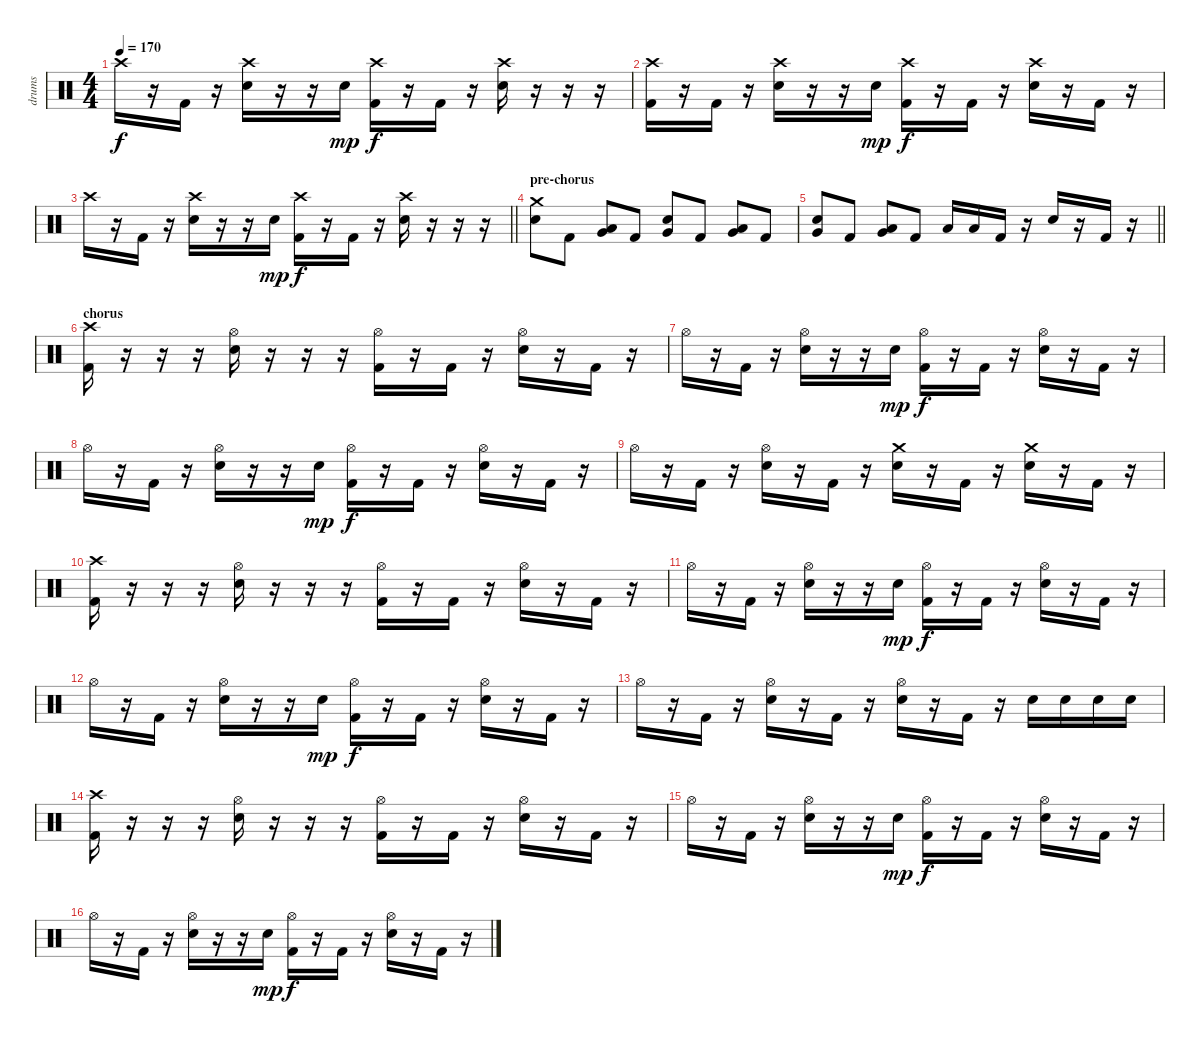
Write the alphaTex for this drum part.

\track ("drums" "drums") {instrument percussion}
\staff {score}
\articulation defaults
\ts (4 4)
\tempo 170
\clef neutral
\ks c "Crash high (hit)".16{dy f}
r.16 "Kick (hit) 2".16 r.16 ("Crash high (hit)" "Snare (hit) 2").16 r.16 r.16 "Snare (hit) 2".16{dy mp} ("Crash high (hit)" "Kick (hit) 2").16{dy f} r.16 "Kick (hit) 2".16 r.16 ("Crash high (hit)" "Snare (hit) 2").16 r.16 r.16 r.16 |
("Crash high (hit)" "Kick (hit) 2").16 r.16 "Kick (hit) 2".16 r.16 ("Crash high (hit)" "Snare (hit) 2").16 r.16 r.16 "Snare (hit) 2".16{dy mp} ("Crash high (hit)" "Kick (hit) 2").16{dy f} r.16 "Kick (hit) 2".16 r.16 ("Crash high (hit)" "Snare (hit) 2").16 r.16 "Kick (hit) 2".16 r.16 |
\barLineRight lightlight "Crash high (hit)".16
r.16 "Kick (hit) 2".16 r.16 ("Crash high (hit)" "Snare (hit) 2").16 r.16 r.16 "Snare (hit) 2".16{dy mp} ("Crash high (hit)" "Kick (hit) 2").16{dy f} r.16 "Kick (hit) 2".16 r.16 ("Crash high (hit)" "Snare (hit) 2").16 r.16 r.16 r.16 |
\section ("" "pre-chorus")
("Crash medium (hit)" "Snare (hit) 2").8 "Kick (hit) 2".8 ("Low Tom (hit)" "Very Low Tom (hit)").8 "Kick (hit) 2".8 ("Snare (hit) 2" "Very Low Tom (hit)").8 "Kick (hit) 2".8 ("Low Tom (hit)" "Very Low Tom (hit)").8 "Kick (hit) 2".8 |
\barLineRight lightlight
("Snare (hit) 2" "Very Low Tom (hit)").8 "Kick (hit) 2".8 ("Low Tom (hit)" "Very Low Tom (hit)").8 "Kick (hit) 2".8 "Low Tom (hit)".16 "Low Tom (hit)".16 "Kick (hit) 2".16 r.16 "Snare (hit) 2".16 r.16 "Kick (hit) 2".16 r.16 |
\section ("" "chorus")
("Crash high (hit)" "Kick (hit) 2").16 r.16 r.16 r.16 ("Hi-Hat (open)" "Snare (hit) 2").16 r.16 r.16 r.16 ("Hi-Hat (open)" "Kick (hit) 2").16 r.16 "Kick (hit) 2".16 r.16 ("Hi-Hat (open)" "Snare (hit) 2").16 r.16 "Kick (hit) 2".16 r.16 |
"Hi-Hat (open)".16 r.16 "Kick (hit) 2".16 r.16 ("Hi-Hat (open)" "Snare (hit) 2").16 r.16 r.16 "Snare (hit) 2".16{dy mp} ("Hi-Hat (open)" "Kick (hit) 2").16{dy f} r.16 "Kick (hit) 2".16 r.16 ("Hi-Hat (open)" "Snare (hit) 2").16 r.16 "Kick (hit) 2".16 r.16 |
"Hi-Hat (open)".16 r.16 "Kick (hit) 2".16 r.16 ("Hi-Hat (open)" "Snare (hit) 2").16 r.16 r.16 "Snare (hit) 2".16{dy mp} ("Hi-Hat (open)" "Kick (hit) 2").16{dy f} r.16 "Kick (hit) 2".16 r.16 ("Hi-Hat (open)" "Snare (hit) 2").16 r.16 "Kick (hit) 2".16 r.16 |
"Hi-Hat (open)".16 r.16 "Kick (hit) 2".16 r.16 ("Hi-Hat (open)" "Snare (hit) 2").16 r.16 "Kick (hit) 2".16 r.16 ("Crash medium (hit)" "Snare (hit) 2").16 r.16 "Kick (hit) 2".16 r.16 ("Crash medium (hit)" "Snare (hit) 2").16 r.16 "Kick (hit) 2".16 r.16 |
("Crash high (hit)" "Kick (hit) 2").16 r.16 r.16 r.16 ("Hi-Hat (open)" "Snare (hit) 2").16 r.16 r.16 r.16 ("Hi-Hat (open)" "Kick (hit) 2").16 r.16 "Kick (hit) 2".16 r.16 ("Hi-Hat (open)" "Snare (hit) 2").16 r.16 "Kick (hit) 2".16 r.16 |
"Hi-Hat (open)".16 r.16 "Kick (hit) 2".16 r.16 ("Hi-Hat (open)" "Snare (hit) 2").16 r.16 r.16 "Snare (hit) 2".16{dy mp} ("Hi-Hat (open)" "Kick (hit) 2").16{dy f} r.16 "Kick (hit) 2".16 r.16 ("Hi-Hat (open)" "Snare (hit) 2").16 r.16 "Kick (hit) 2".16 r.16 |
"Hi-Hat (open)".16 r.16 "Kick (hit) 2".16 r.16 ("Hi-Hat (open)" "Snare (hit) 2").16 r.16 r.16 "Snare (hit) 2".16{dy mp} ("Hi-Hat (open)" "Kick (hit) 2").16{dy f} r.16 "Kick (hit) 2".16 r.16 ("Hi-Hat (open)" "Snare (hit) 2").16 r.16 "Kick (hit) 2".16 r.16 |
"Hi-Hat (open)".16 r.16 "Kick (hit) 2".16 r.16 ("Hi-Hat (open)" "Snare (hit) 2").16 r.16 "Kick (hit) 2".16 r.16 ("Hi-Hat (open)" "Snare (hit) 2").16 r.16 "Kick (hit) 2".16 r.16 "Snare (hit) 2".16 "Snare (hit) 2".16 "Snare (hit) 2".16 "Snare (hit) 2".16 |
("Crash high (hit)" "Kick (hit) 2").16 r.16 r.16 r.16 ("Hi-Hat (open)" "Snare (hit) 2").16 r.16 r.16 r.16 ("Hi-Hat (open)" "Kick (hit) 2").16 r.16 "Kick (hit) 2".16 r.16 ("Hi-Hat (open)" "Snare (hit) 2").16 r.16 "Kick (hit) 2".16 r.16 |
"Hi-Hat (open)".16 r.16 "Kick (hit) 2".16 r.16 ("Hi-Hat (open)" "Snare (hit) 2").16 r.16 r.16 "Snare (hit) 2".16{dy mp} ("Hi-Hat (open)" "Kick (hit) 2").16{dy f} r.16 "Kick (hit) 2".16 r.16 ("Hi-Hat (open)" "Snare (hit) 2").16 r.16 "Kick (hit) 2".16 r.16 |
"Hi-Hat (open)".16 r.16 "Kick (hit) 2".16 r.16 ("Hi-Hat (open)" "Snare (hit) 2").16 r.16 r.16 "Snare (hit) 2".16{dy mp} ("Hi-Hat (open)" "Kick (hit) 2").16{dy f} r.16 "Kick (hit) 2".16 r.16 ("Hi-Hat (open)" "Snare (hit) 2").16 r.16 "Kick (hit) 2".16 r.16
